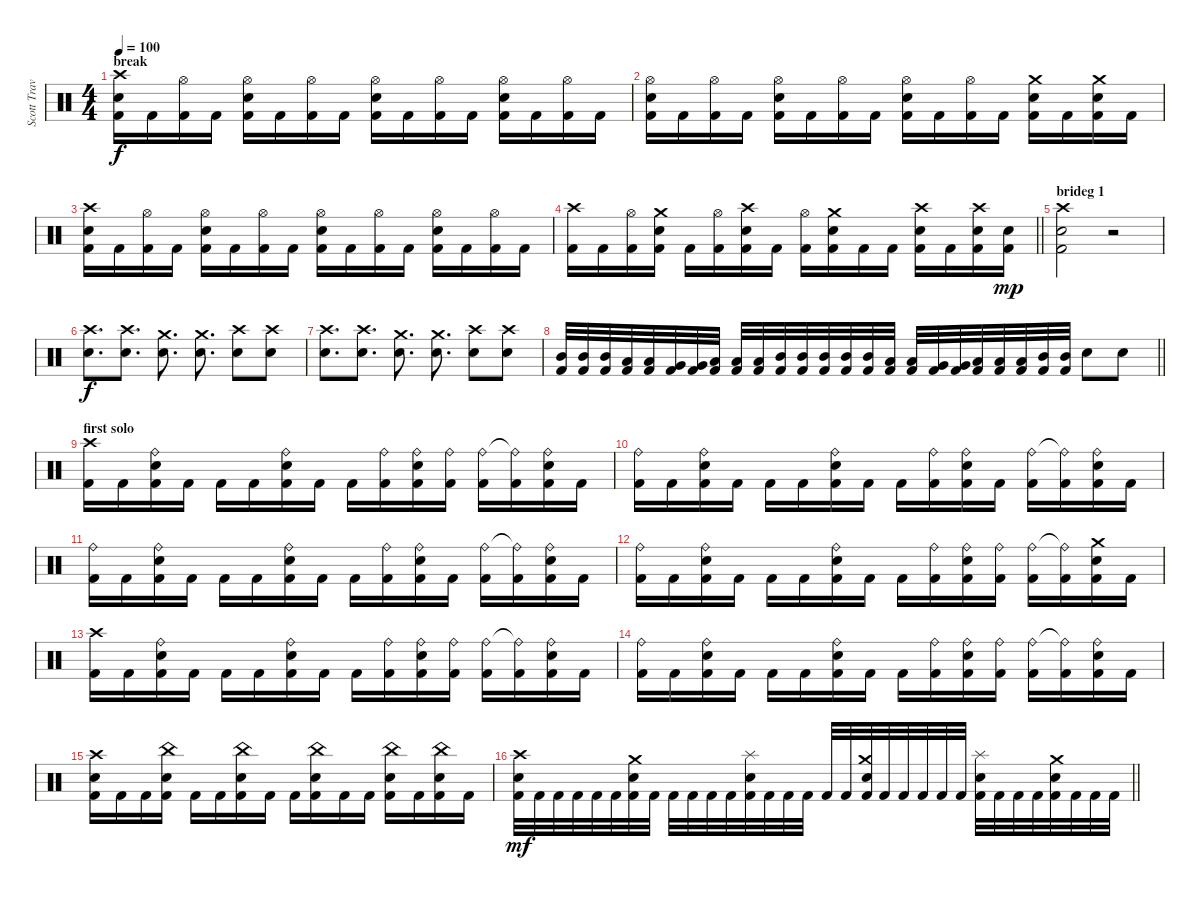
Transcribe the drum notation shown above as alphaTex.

\track ("Scott Travis" "Scott Trav") {instrument percussion}
\staff {score}
\articulation defaults
\ts (4 4)
\section ("" "break")
\tempo 100
\clef neutral
\ks c
("Crash high (hit)" "Snare (hit) 2" "Kick (hit) 2").16{dy f} "Kick (hit) 2".16 ("Hi-Hat (open)" "Kick (hit) 2").16 "Kick (hit) 2".16 ("Hi-Hat (open)" "Snare (hit) 2" "Kick (hit) 2").16 "Kick (hit) 2".16 ("Hi-Hat (open)" "Kick (hit) 2").16 "Kick (hit) 2".16 ("Hi-Hat (open)" "Snare (hit) 2" "Kick (hit) 2").16 "Kick (hit) 2".16 ("Hi-Hat (open)" "Kick (hit) 2").16 "Kick (hit) 2".16 ("Hi-Hat (open)" "Snare (hit) 2" "Kick (hit) 2").16 "Kick (hit) 2".16 ("Hi-Hat (open)" "Kick (hit) 2").16 "Kick (hit) 2".16 |
("Hi-Hat (open)" "Snare (hit) 2" "Kick (hit) 2").16 "Kick (hit) 2".16 ("Hi-Hat (open)" "Kick (hit) 2").16 "Kick (hit) 2".16 ("Hi-Hat (open)" "Snare (hit) 2" "Kick (hit) 2").16 "Kick (hit) 2".16 ("Hi-Hat (open)" "Kick (hit) 2").16 "Kick (hit) 2".16 ("Hi-Hat (open)" "Snare (hit) 2" "Kick (hit) 2").16 "Kick (hit) 2".16 ("Hi-Hat (open)" "Kick (hit) 2").16 "Kick (hit) 2".16 ("Crash medium (hit)" "Snare (hit) 2" "Kick (hit) 2").16 "Kick (hit) 2".16 ("Crash medium (hit)" "Snare (hit) 2" "Kick (hit) 2").16 "Kick (hit) 2".16 |
("Crash high (hit)" "Snare (hit) 2" "Kick (hit) 2").16 "Kick (hit) 2".16 ("Hi-Hat (open)" "Kick (hit) 2").16 "Kick (hit) 2".16 ("Hi-Hat (open)" "Snare (hit) 2" "Kick (hit) 2").16 "Kick (hit) 2".16 ("Hi-Hat (open)" "Kick (hit) 2").16 "Kick (hit) 2".16 ("Hi-Hat (open)" "Snare (hit) 2" "Kick (hit) 2").16 "Kick (hit) 2".16 ("Hi-Hat (open)" "Kick (hit) 2").16 "Kick (hit) 2".16 ("Hi-Hat (open)" "Snare (hit) 2" "Kick (hit) 2").16 "Kick (hit) 2".16 ("Hi-Hat (open)" "Kick (hit) 2").16 "Kick (hit) 2".16 |
\barLineRight lightlight
("Crash high (hit)" "Kick (hit) 2").16 "Kick (hit) 2".16 ("Hi-Hat (open)" "Kick (hit) 2").16 ("Crash medium (hit)" "Snare (hit) 2" "Kick (hit) 2").16 "Kick (hit) 2".16 ("Hi-Hat (open)" "Kick (hit) 2").16 ("Crash high (hit)" "Snare (hit) 2" "Kick (hit) 2").16 "Kick (hit) 2".16 ("Hi-Hat (open)" "Kick (hit) 2").16 ("Crash medium (hit)" "Snare (hit) 2" "Kick (hit) 2").16 "Kick (hit) 2".16 "Kick (hit) 2".16 ("Crash high (hit)" "Snare (hit) 2" "Kick (hit) 2").16 "Kick (hit) 2".16 ("Crash high (hit)" "Snare (hit) 2" "Kick (hit) 2").16 ("Snare (hit) 2" "Kick (hit) 2").16{dy mp} |
\section ("" "brideg 1")
("Crash high (hit)" "Snare (hit) 2" "Kick (hit) 2").2 r.2 |
("Crash high (hit)" "Electric Snare (hit)").8{d dy f} ("Crash high (hit)" "Electric Snare (hit)").8{d} ("Crash medium (hit)" "Electric Snare (hit)").8{d} ("Crash medium (hit)" "Electric Snare (hit)").8{d} ("Crash high (hit)" "Electric Snare (hit)").8 ("Crash high (hit)" "Electric Snare (hit)").8 |
("Crash high (hit)" "Electric Snare (hit)").8{d} ("Crash high (hit)" "Electric Snare (hit)").8{d} ("Crash medium (hit)" "Electric Snare (hit)").8{d} ("Crash medium (hit)" "Electric Snare (hit)").8{d} ("Crash high (hit)" "Electric Snare (hit)").8 ("Crash high (hit)" "Electric Snare (hit)").8 |
\barLineRight lightlight
("Mid Tom (hit)" "Kick (hit) 2").32 ("Mid Tom (hit)" "Kick (hit) 2").32 ("Mid Tom (hit)" "Kick (hit) 2").32 ("Low Tom (hit)" "Kick (hit) 2").32 ("Low Tom (hit)" "Kick (hit) 2").32 ("Very Low Tom (hit)" "Kick (hit) 2").32 ("Very Low Tom (hit)" "Kick (hit) 2").32 ("Low Floor Tom (hit)" "Kick (hit) 2").32 ("Low Floor Tom (hit)" "Kick (hit) 2").32 ("Low Floor Tom (hit)" "Kick (hit) 2").32 ("Mid Tom (hit)" "Kick (hit) 2").32 ("Mid Tom (hit)" "Kick (hit) 2").32 ("Mid Tom (hit)" "Kick (hit) 2").32 ("Mid Tom (hit)" "Kick (hit) 2").32 ("Mid Tom (hit)" "Kick (hit) 2").32 ("Low Tom (hit)" "Kick (hit) 2").32 ("Low Tom (hit)" "Kick (hit) 2").32 ("Very Low Tom (hit)" "Kick (hit) 2").32 ("Very Low Tom (hit)" "Kick (hit) 2").32 ("Low Floor Tom (hit)" "Kick (hit) 2").32 ("Low Floor Tom (hit)" "Kick (hit) 2").32 ("Low Floor Tom (hit)" "Kick (hit) 2").32 ("Mid Tom (hit)" "Kick (hit) 2").32 ("Mid Tom (hit)" "Kick (hit) 2").32 "Electric Snare (hit)".8 "Electric Snare (hit)".8 |
\section ("" "first solo")
("Crash high (hit)" "Kick (hit) 2").16 "Kick (hit) 2".16 ("Ride (bell)" "Snare (hit) 2" "Kick (hit) 2").16 "Kick (hit) 2".16 "Kick (hit) 2".16 "Kick (hit) 2".16 ("Ride (bell)" "Snare (hit) 2" "Kick (hit) 2").16 "Kick (hit) 2".16 "Kick (hit) 2".16 ("Ride (bell)" "Kick (hit) 2").16 ("Ride (bell)" "Snare (hit) 2" "Kick (hit) 2").16 ("Ride (bell)" "Kick (hit) 2").16 ("Ride (bell)" "Kick (hit) 2").16 ("Ride (bell)"{t} "Kick (hit) 2").16 ("Ride (bell)" "Snare (hit) 2" "Kick (hit) 2").16 "Kick (hit) 2".16 |
("Ride (bell)" "Kick (hit) 2").16 "Kick (hit) 2".16 ("Ride (bell)" "Snare (hit) 2" "Kick (hit) 2").16 "Kick (hit) 2".16 "Kick (hit) 2".16 "Kick (hit) 2".16 ("Ride (bell)" "Snare (hit) 2" "Kick (hit) 2").16 "Kick (hit) 2".16 "Kick (hit) 2".16 ("Ride (bell)" "Kick (hit) 2").16 ("Ride (bell)" "Snare (hit) 2" "Kick (hit) 2").16 "Kick (hit) 2".16 ("Ride (bell)" "Kick (hit) 2").16 ("Ride (bell)"{t} "Kick (hit) 2").16 ("Ride (bell)" "Snare (hit) 2" "Kick (hit) 2").16 "Kick (hit) 2".16 |
("Ride (bell)" "Kick (hit) 2").16 "Kick (hit) 2".16 ("Ride (bell)" "Snare (hit) 2" "Kick (hit) 2").16 "Kick (hit) 2".16 "Kick (hit) 2".16 "Kick (hit) 2".16 ("Ride (bell)" "Snare (hit) 2" "Kick (hit) 2").16 "Kick (hit) 2".16 "Kick (hit) 2".16 ("Ride (bell)" "Kick (hit) 2").16 ("Ride (bell)" "Snare (hit) 2" "Kick (hit) 2").16 "Kick (hit) 2".16 ("Ride (bell)" "Kick (hit) 2").16 ("Ride (bell)"{t} "Kick (hit) 2").16 ("Ride (bell)" "Snare (hit) 2" "Kick (hit) 2").16 "Kick (hit) 2".16 |
("Ride (bell)" "Kick (hit) 2").16 "Kick (hit) 2".16 ("Ride (bell)" "Snare (hit) 2" "Kick (hit) 2").16 "Kick (hit) 2".16 "Kick (hit) 2".16 "Kick (hit) 2".16 ("Ride (bell)" "Snare (hit) 2" "Kick (hit) 2").16 "Kick (hit) 2".16 "Kick (hit) 2".16 ("Ride (bell)" "Kick (hit) 2").16 ("Ride (bell)" "Snare (hit) 2" "Kick (hit) 2").16 ("Ride (bell)" "Kick (hit) 2").16 ("Ride (bell)" "Kick (hit) 2").16 ("Ride (bell)"{t} "Kick (hit) 2").16 ("Crash medium (hit)" "Snare (hit) 2" "Kick (hit) 2").16 "Kick (hit) 2".16 |
("Crash high (hit)" "Kick (hit) 2").16 "Kick (hit) 2".16 ("Ride (bell)" "Snare (hit) 2" "Kick (hit) 2").16 "Kick (hit) 2".16 "Kick (hit) 2".16 "Kick (hit) 2".16 ("Ride (bell)" "Snare (hit) 2" "Kick (hit) 2").16 "Kick (hit) 2".16 "Kick (hit) 2".16 ("Ride (bell)" "Kick (hit) 2").16 ("Ride (bell)" "Snare (hit) 2" "Kick (hit) 2").16 ("Ride (bell)" "Kick (hit) 2").16 ("Ride (bell)" "Kick (hit) 2").16 ("Ride (bell)"{t} "Kick (hit) 2").16 ("Ride (bell)" "Snare (hit) 2" "Kick (hit) 2").16 "Kick (hit) 2".16 |
("Ride (bell)" "Kick (hit) 2").16 "Kick (hit) 2".16 ("Ride (bell)" "Snare (hit) 2" "Kick (hit) 2").16 "Kick (hit) 2".16 "Kick (hit) 2".16 "Kick (hit) 2".16 ("Ride (bell)" "Snare (hit) 2" "Kick (hit) 2").16 "Kick (hit) 2".16 "Kick (hit) 2".16 ("Ride (bell)" "Kick (hit) 2").16 ("Ride (bell)" "Snare (hit) 2" "Kick (hit) 2").16 ("Ride (bell)" "Kick (hit) 2").16 ("Ride (bell)" "Kick (hit) 2").16 ("Ride (bell)"{t} "Kick (hit) 2").16 ("Ride (bell)" "Snare (hit) 2" "Kick (hit) 2").16 "Kick (hit) 2".16 |
("Crash high (hit)" "Electric Snare (hit)" "Kick (hit) 2").16 "Kick (hit) 2".16 "Kick (hit) 2".16 ("China (hit)" "Electric Snare (hit)" "Kick (hit) 2").16 "Kick (hit) 2".16 "Kick (hit) 2".16 ("China (hit)" "Electric Snare (hit)" "Kick (hit) 2").16 "Kick (hit) 2".16 "Kick (hit) 2".16 ("China (hit)" "Electric Snare (hit)" "Kick (hit) 2").16 "Kick (hit) 2".16 "Kick (hit) 2".16 ("China (hit)" "Electric Snare (hit)" "Kick (hit) 2").16 "Kick (hit) 2".16 ("China (hit)" "Electric Snare (hit)" "Kick (hit) 2").16 "Kick (hit) 2".16 |
\barLineRight lightlight
("Crash high (hit)" "Electric Snare (hit)" "Kick (hit) 2").32{dy mf} "Kick (hit) 2".32 "Kick (hit) 2".32 "Kick (hit) 2".32 "Kick (hit) 2".32 "Kick (hit) 2".32 ("Crash medium (hit)" "Electric Snare (hit)" "Kick (hit) 2").32 "Kick (hit) 2".32 "Kick (hit) 2".32 "Kick (hit) 2".32 "Kick (hit) 2".32 "Kick (hit) 2".32 ("Splash (hit)" "Electric Snare (hit)" "Kick (hit) 2").32 "Kick (hit) 2".32 "Kick (hit) 2".32 "Kick (hit) 2".32 "Kick (hit) 2".32 "Kick (hit) 2".32 ("Crash medium (hit)" "Electric Snare (hit)" "Kick (hit) 2").32 "Kick (hit) 2".32 "Kick (hit) 2".32 "Kick (hit) 2".32 "Kick (hit) 2".32 "Kick (hit) 2".32 ("Splash (hit)" "Electric Snare (hit)" "Kick (hit) 2").32 "Kick (hit) 2".32 "Kick (hit) 2".32 "Kick (hit) 2".32 ("Crash medium (hit)" "Electric Snare (hit)" "Kick (hit) 2").32 "Kick (hit) 2".32 "Kick (hit) 2".32 "Kick (hit) 2".32
